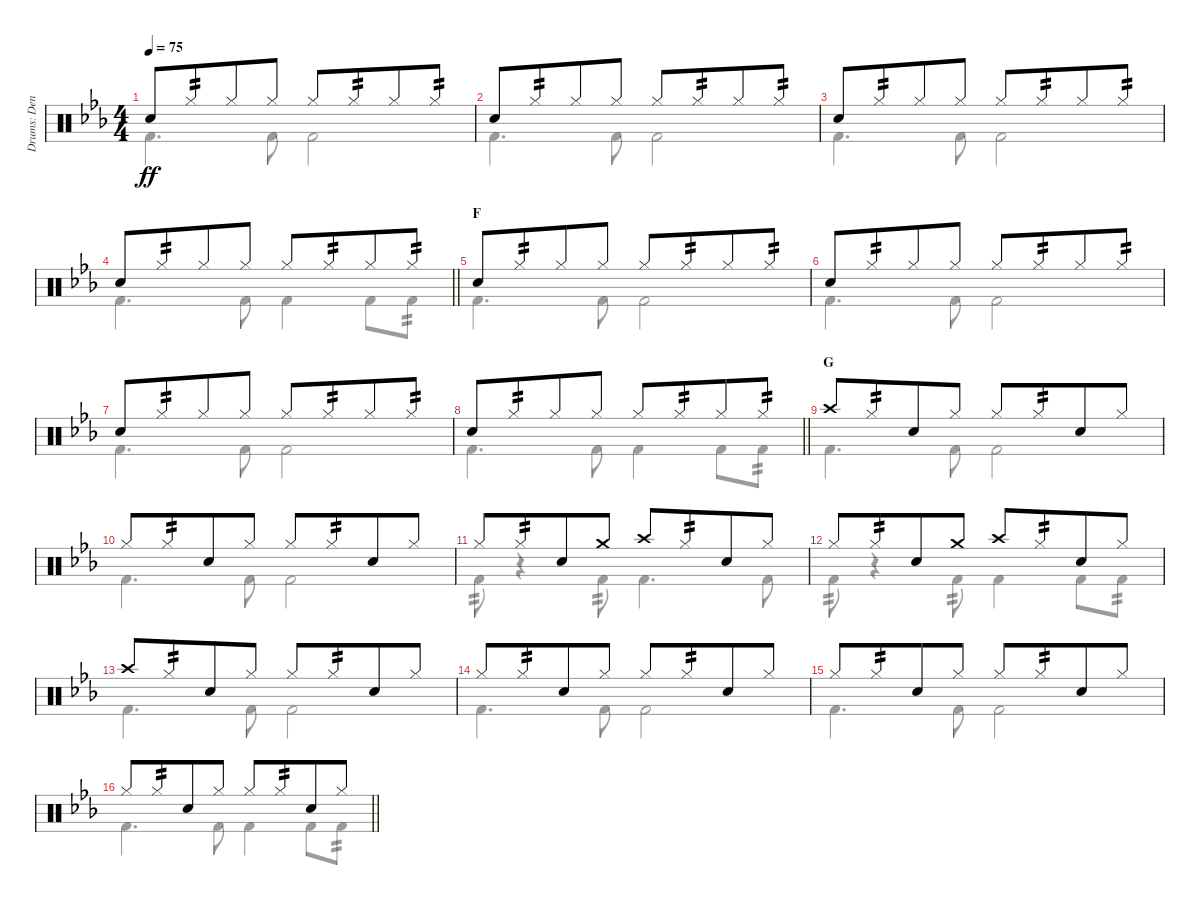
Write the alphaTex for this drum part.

\track ("Drums: Denny" "Drums: Den") {instrument percussion}
\staff {score}
\articulation defaults
\voice
\ts (4 4)
\tempo 75
\clef neutral
\ks eb "Snare (hit) 2".8{dy ff} "Hi-Hat (closed)".8{tp 2 beam merge} "Hi-Hat (closed)".8 "Hi-Hat (closed)".8 "Hi-Hat (closed)".8 "Hi-Hat (closed)".8{tp 2 beam merge} "Hi-Hat (closed)".8 "Hi-Hat (closed)".8{tp 2}
|
"Snare (hit) 2".8 "Hi-Hat (closed)".8{tp 2 beam merge} "Hi-Hat (closed)".8 "Hi-Hat (closed)".8 "Hi-Hat (closed)".8 "Hi-Hat (closed)".8{tp 2 beam merge} "Hi-Hat (closed)".8 "Hi-Hat (closed)".8{tp 2} |
"Snare (hit) 2".8 "Hi-Hat (closed)".8{tp 2 beam merge} "Hi-Hat (closed)".8 "Hi-Hat (closed)".8 "Hi-Hat (closed)".8 "Hi-Hat (closed)".8{tp 2 beam merge} "Hi-Hat (closed)".8 "Hi-Hat (closed)".8{tp 2} |
\barLineRight lightlight "Snare (hit) 2".8 "Hi-Hat (closed)".8{tp 2 beam merge} "Hi-Hat (closed)".8 "Hi-Hat (closed)".8 "Hi-Hat (closed)".8 "Hi-Hat (closed)".8{tp 2 beam merge} "Hi-Hat (closed)".8 "Hi-Hat (closed)".8{tp 2}
|
\section ("" "F")
"Snare (hit) 2".8 "Hi-Hat (closed)".8{tp 2 beam merge} "Hi-Hat (closed)".8 "Hi-Hat (closed)".8 "Hi-Hat (closed)".8 "Hi-Hat (closed)".8{tp 2 beam merge} "Hi-Hat (closed)".8 "Hi-Hat (closed)".8{tp 2} |
"Snare (hit) 2".8 "Hi-Hat (closed)".8{tp 2 beam merge} "Hi-Hat (closed)".8 "Hi-Hat (closed)".8 "Hi-Hat (closed)".8 "Hi-Hat (closed)".8{tp 2 beam merge} "Hi-Hat (closed)".8 "Hi-Hat (closed)".8{tp 2} |
"Snare (hit) 2".8 "Hi-Hat (closed)".8{tp 2 beam merge} "Hi-Hat (closed)".8 "Hi-Hat (closed)".8 "Hi-Hat (closed)".8 "Hi-Hat (closed)".8{tp 2 beam merge} "Hi-Hat (closed)".8 "Hi-Hat (closed)".8{tp 2} |
\barLineRight lightlight "Snare (hit) 2".8 "Hi-Hat (closed)".8{tp 2 beam merge} "Hi-Hat (closed)".8 "Hi-Hat (closed)".8 "Hi-Hat (closed)".8 "Hi-Hat (closed)".8{tp 2 beam merge} "Hi-Hat (closed)".8 "Hi-Hat (closed)".8{tp 2}
|
\section ("" "G")
"Crash high (hit)".8 "Hi-Hat (closed)".8{tp 2 beam merge} "Snare (hit) 2".8 "Hi-Hat (closed)".8 "Hi-Hat (closed)".8 "Hi-Hat (closed)".8{tp 2 beam merge} "Snare (hit) 2".8 "Hi-Hat (closed)".8 |
"Hi-Hat (closed)".8 "Hi-Hat (closed)".8{tp 2 beam merge} "Snare (hit) 2".8 "Hi-Hat (closed)".8 "Hi-Hat (closed)".8 "Hi-Hat (closed)".8{tp 2 beam merge} "Snare (hit) 2".8 "Hi-Hat (closed)".8 |
"Hi-Hat (closed)".8 "Hi-Hat (closed)".8{tp 2 beam merge} "Snare (hit) 2".8 "Crash medium (hit)".8 "Crash high (hit)".8 "Hi-Hat (closed)".8{tp 2 beam merge} "Snare (hit) 2".8 "Hi-Hat (closed)".8 |
"Hi-Hat (closed)".8 "Hi-Hat (closed)".8{tp 2 beam merge} "Snare (hit) 2".8 "Crash medium (hit)".8 "Crash high (hit)".8 "Hi-Hat (closed)".8{tp 2 beam merge} "Snare (hit) 2".8 "Hi-Hat (closed)".8 |
"Crash high (hit)".8 "Hi-Hat (closed)".8{tp 2 beam merge} "Snare (hit) 2".8 "Hi-Hat (closed)".8 "Hi-Hat (closed)".8 "Hi-Hat (closed)".8{tp 2 beam merge} "Snare (hit) 2".8 "Hi-Hat (closed)".8 |
"Hi-Hat (closed)".8 "Hi-Hat (closed)".8{tp 2 beam merge} "Snare (hit) 2".8 "Hi-Hat (closed)".8 "Hi-Hat (closed)".8 "Hi-Hat (closed)".8{tp 2 beam merge} "Snare (hit) 2".8 "Hi-Hat (closed)".8 |
"Hi-Hat (closed)".8 "Hi-Hat (closed)".8{tp 2 beam merge} "Snare (hit) 2".8 "Hi-Hat (closed)".8 "Hi-Hat (closed)".8 "Hi-Hat (closed)".8{tp 2 beam merge} "Snare (hit) 2".8 "Hi-Hat (closed)".8 |
\barLineRight lightlight "Hi-Hat (closed)".8 "Hi-Hat (closed)".8{tp 2 beam merge} "Snare (hit) 2".8 "Hi-Hat (closed)".8 "Hi-Hat (closed)".8 "Hi-Hat (closed)".8{tp 2 beam merge} "Snare (hit) 2".8 "Hi-Hat (closed)".8
\voice
\clef neutral
\ottava regular
\simile none
\ks eb "Kick (hit) 2".4{d dy ff} "Kick (hit) 2".8 "Kick (hit) 2".2
|
"Kick (hit) 2".4{d} "Kick (hit) 2".8 "Kick (hit) 2".2 |
"Kick (hit) 2".4{d} "Kick (hit) 2".8 "Kick (hit) 2".2 |
\barLineRight lightlight "Kick (hit) 2".4{d} "Kick (hit) 2".8 "Kick (hit) 2".4 "Kick (hit) 2".8 "Kick (hit) 2".8{tp 2}
|
"Kick (hit) 2".4{d} "Kick (hit) 2".8 "Kick (hit) 2".2 |
"Kick (hit) 2".4{d} "Kick (hit) 2".8 "Kick (hit) 2".2 |
"Kick (hit) 2".4{d} "Kick (hit) 2".8 "Kick (hit) 2".2 |
\barLineRight lightlight "Kick (hit) 2".4{d} "Kick (hit) 2".8 "Kick (hit) 2".4 "Kick (hit) 2".8 "Kick (hit) 2".8{tp 2}
|
"Kick (hit) 2".4{d} "Kick (hit) 2".8 "Kick (hit) 2".2 |
"Kick (hit) 2".4{d} "Kick (hit) 2".8 "Kick (hit) 2".2 |
"Kick (hit) 2".8{tp 2} r.4 "Kick (hit) 2".8{tp 2} "Kick (hit) 2".4{d} "Kick (hit) 2".8 |
"Kick (hit) 2".8{tp 2} r.4 "Kick (hit) 2".8{tp 2} "Kick (hit) 2".4 "Kick (hit) 2".8 "Kick (hit) 2".8{tp 2} |
"Kick (hit) 2".4{d} "Kick (hit) 2".8 "Kick (hit) 2".2 |
"Kick (hit) 2".4{d} "Kick (hit) 2".8 "Kick (hit) 2".2 |
"Kick (hit) 2".4{d} "Kick (hit) 2".8 "Kick (hit) 2".2 |
\barLineRight lightlight "Kick (hit) 2".4{d} "Kick (hit) 2".8 "Kick (hit) 2".4 "Kick (hit) 2".8 "Kick (hit) 2".8{tp 2}
